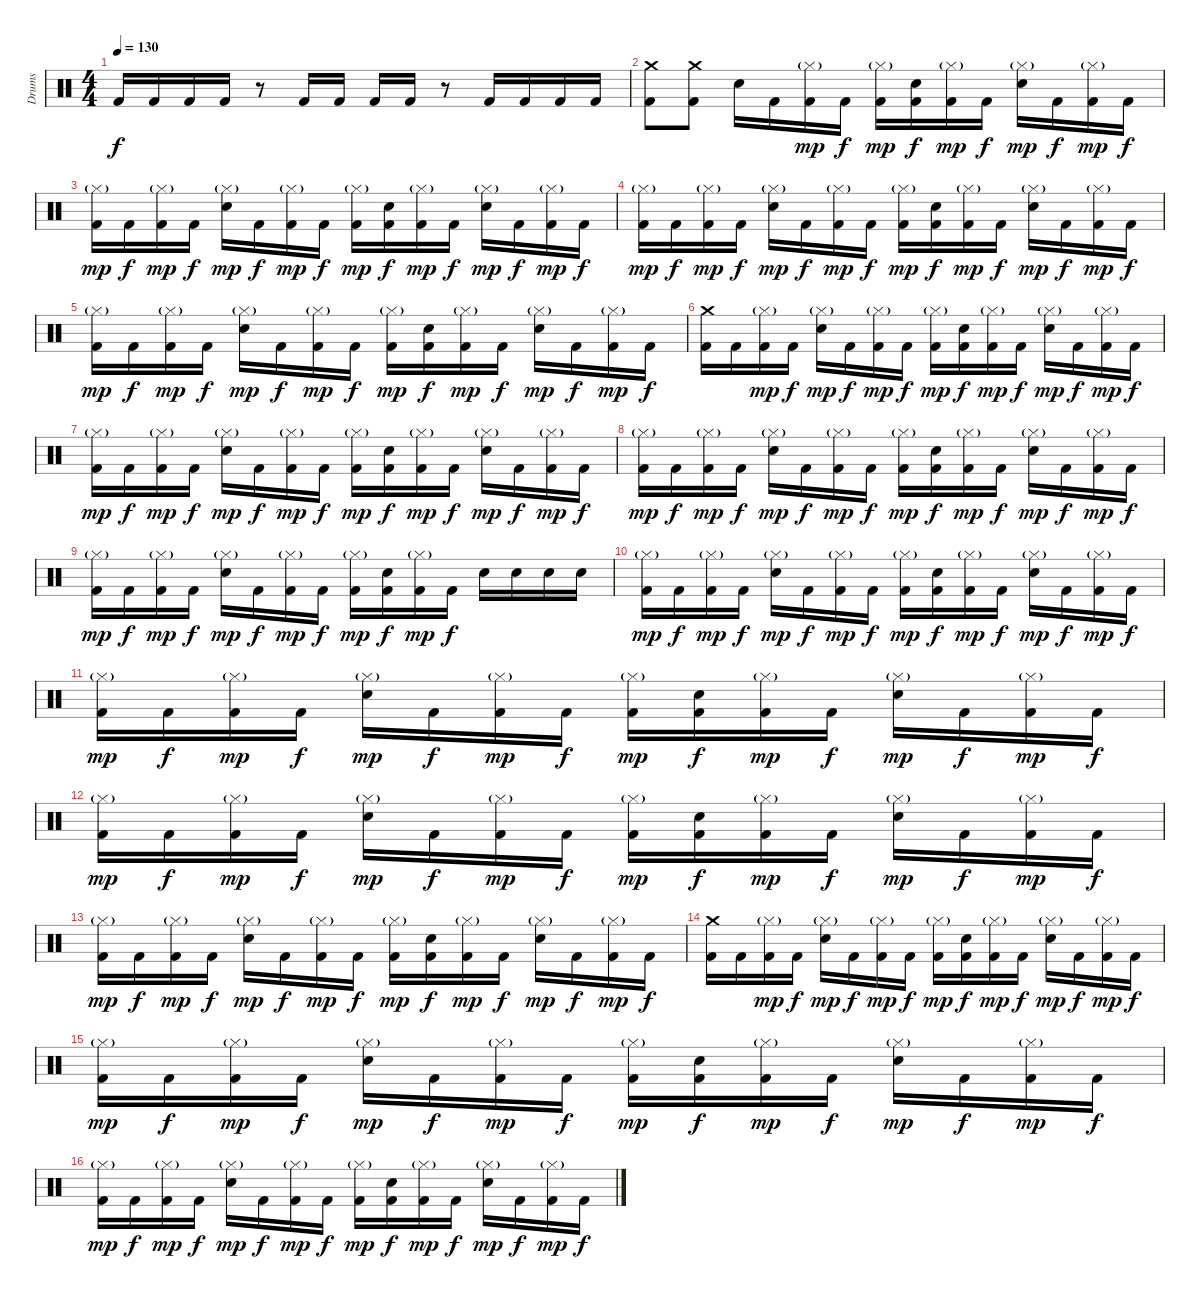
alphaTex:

\track ("Drums" "Drums") {instrument percussion}
\staff {score}
\articulation defaults
\ts (4 4)
\tempo 130
\clef neutral
\ks c "Kick (hit) 2".16{dy f} "Kick (hit) 2".16 "Kick (hit) 2".16 "Kick (hit) 2".16
r.8 "Kick (hit) 2".16 "Kick (hit) 2".16 "Kick (hit) 2".16 "Kick (hit) 2".16 r.8 "Kick (hit) 2".16 "Kick (hit) 2".16 "Kick (hit) 2".16 "Kick (hit) 2".16 |
("Crash medium (hit)" "Kick (hit) 2").8 ("Crash medium (hit)" "Kick (hit) 2").8 "Snare (hit) 2".16 "Kick (hit) 2".16 ("Hi-Hat (closed)"{g} "Kick (hit) 2").16{dy mp} "Kick (hit) 2".16{dy f} ("Hi-Hat (closed)"{g} "Kick (hit) 2").16{dy mp} ("Snare (hit) 2" "Kick (hit) 2").16{dy f} ("Hi-Hat (closed)"{g} "Kick (hit) 2").16{dy mp} "Kick (hit) 2".16{dy f} ("Snare (hit) 2" "Hi-Hat (closed)"{g}).16{dy mp} "Kick (hit) 2".16{dy f} ("Hi-Hat (closed)"{g} "Kick (hit) 2").16{dy mp} "Kick (hit) 2".16{dy f} |
("Hi-Hat (closed)"{g} "Kick (hit) 2").16{dy mp} "Kick (hit) 2".16{dy f} ("Hi-Hat (closed)"{g} "Kick (hit) 2").16{dy mp} "Kick (hit) 2".16{dy f} ("Snare (hit) 2" "Hi-Hat (closed)"{g}).16{dy mp} "Kick (hit) 2".16{dy f} ("Hi-Hat (closed)"{g} "Kick (hit) 2").16{dy mp} "Kick (hit) 2".16{dy f} ("Hi-Hat (closed)"{g} "Kick (hit) 2").16{dy mp} ("Snare (hit) 2" "Kick (hit) 2").16{dy f} ("Hi-Hat (closed)"{g} "Kick (hit) 2").16{dy mp} "Kick (hit) 2".16{dy f} ("Snare (hit) 2" "Hi-Hat (closed)"{g}).16{dy mp} "Kick (hit) 2".16{dy f} ("Hi-Hat (closed)"{g} "Kick (hit) 2").16{dy mp} "Kick (hit) 2".16{dy f} |
("Hi-Hat (closed)"{g} "Kick (hit) 2").16{dy mp} "Kick (hit) 2".16{dy f} ("Hi-Hat (closed)"{g} "Kick (hit) 2").16{dy mp} "Kick (hit) 2".16{dy f} ("Snare (hit) 2" "Hi-Hat (closed)"{g}).16{dy mp} "Kick (hit) 2".16{dy f} ("Hi-Hat (closed)"{g} "Kick (hit) 2").16{dy mp} "Kick (hit) 2".16{dy f} ("Hi-Hat (closed)"{g} "Kick (hit) 2").16{dy mp} ("Snare (hit) 2" "Kick (hit) 2").16{dy f} ("Hi-Hat (closed)"{g} "Kick (hit) 2").16{dy mp} "Kick (hit) 2".16{dy f} ("Snare (hit) 2" "Hi-Hat (closed)"{g}).16{dy mp} "Kick (hit) 2".16{dy f} ("Hi-Hat (closed)"{g} "Kick (hit) 2").16{dy mp} "Kick (hit) 2".16{dy f} |
("Hi-Hat (closed)"{g} "Kick (hit) 2").16{dy mp} "Kick (hit) 2".16{dy f} ("Hi-Hat (closed)"{g} "Kick (hit) 2").16{dy mp} "Kick (hit) 2".16{dy f} ("Snare (hit) 2" "Hi-Hat (closed)"{g}).16{dy mp} "Kick (hit) 2".16{dy f} ("Hi-Hat (closed)"{g} "Kick (hit) 2").16{dy mp} "Kick (hit) 2".16{dy f} ("Hi-Hat (closed)"{g} "Kick (hit) 2").16{dy mp} ("Snare (hit) 2" "Kick (hit) 2").16{dy f} ("Hi-Hat (closed)"{g} "Kick (hit) 2").16{dy mp} "Kick (hit) 2".16{dy f} ("Snare (hit) 2" "Hi-Hat (closed)"{g}).16{dy mp} "Kick (hit) 2".16{dy f} ("Hi-Hat (closed)"{g} "Kick (hit) 2").16{dy mp} "Kick (hit) 2".16{dy f} |
("Crash medium (hit)" "Kick (hit) 2").16 "Kick (hit) 2".16 ("Hi-Hat (closed)"{g} "Kick (hit) 2").16{dy mp} "Kick (hit) 2".16{dy f} ("Snare (hit) 2" "Hi-Hat (closed)"{g}).16{dy mp} "Kick (hit) 2".16{dy f} ("Hi-Hat (closed)"{g} "Kick (hit) 2").16{dy mp} "Kick (hit) 2".16{dy f} ("Hi-Hat (closed)"{g} "Kick (hit) 2").16{dy mp} ("Snare (hit) 2" "Kick (hit) 2").16{dy f} ("Hi-Hat (closed)"{g} "Kick (hit) 2").16{dy mp} "Kick (hit) 2".16{dy f} ("Snare (hit) 2" "Hi-Hat (closed)"{g}).16{dy mp} "Kick (hit) 2".16{dy f} ("Hi-Hat (closed)"{g} "Kick (hit) 2").16{dy mp} "Kick (hit) 2".16{dy f} |
("Hi-Hat (closed)"{g} "Kick (hit) 2").16{dy mp} "Kick (hit) 2".16{dy f} ("Hi-Hat (closed)"{g} "Kick (hit) 2").16{dy mp} "Kick (hit) 2".16{dy f} ("Snare (hit) 2" "Hi-Hat (closed)"{g}).16{dy mp} "Kick (hit) 2".16{dy f} ("Hi-Hat (closed)"{g} "Kick (hit) 2").16{dy mp} "Kick (hit) 2".16{dy f} ("Hi-Hat (closed)"{g} "Kick (hit) 2").16{dy mp} ("Snare (hit) 2" "Kick (hit) 2").16{dy f} ("Hi-Hat (closed)"{g} "Kick (hit) 2").16{dy mp} "Kick (hit) 2".16{dy f} ("Snare (hit) 2" "Hi-Hat (closed)"{g}).16{dy mp} "Kick (hit) 2".16{dy f} ("Hi-Hat (closed)"{g} "Kick (hit) 2").16{dy mp} "Kick (hit) 2".16{dy f} |
("Hi-Hat (closed)"{g} "Kick (hit) 2").16{dy mp} "Kick (hit) 2".16{dy f} ("Hi-Hat (closed)"{g} "Kick (hit) 2").16{dy mp} "Kick (hit) 2".16{dy f} ("Snare (hit) 2" "Hi-Hat (closed)"{g}).16{dy mp} "Kick (hit) 2".16{dy f} ("Hi-Hat (closed)"{g} "Kick (hit) 2").16{dy mp} "Kick (hit) 2".16{dy f} ("Hi-Hat (closed)"{g} "Kick (hit) 2").16{dy mp} ("Snare (hit) 2" "Kick (hit) 2").16{dy f} ("Hi-Hat (closed)"{g} "Kick (hit) 2").16{dy mp} "Kick (hit) 2".16{dy f} ("Snare (hit) 2" "Hi-Hat (closed)"{g}).16{dy mp} "Kick (hit) 2".16{dy f} ("Hi-Hat (closed)"{g} "Kick (hit) 2").16{dy mp} "Kick (hit) 2".16{dy f} |
("Hi-Hat (closed)"{g} "Kick (hit) 2").16{dy mp} "Kick (hit) 2".16{dy f} ("Hi-Hat (closed)"{g} "Kick (hit) 2").16{dy mp} "Kick (hit) 2".16{dy f} ("Snare (hit) 2" "Hi-Hat (closed)"{g}).16{dy mp} "Kick (hit) 2".16{dy f} ("Hi-Hat (closed)"{g} "Kick (hit) 2").16{dy mp} "Kick (hit) 2".16{dy f} ("Hi-Hat (closed)"{g} "Kick (hit) 2").16{dy mp} ("Snare (hit) 2" "Kick (hit) 2").16{dy f} ("Hi-Hat (closed)"{g} "Kick (hit) 2").16{dy mp} "Kick (hit) 2".16{dy f} "Snare (hit) 2".16 "Snare (hit) 2".16 "Snare (hit) 2".16 "Snare (hit) 2".16 |
("Hi-Hat (closed)"{g} "Kick (hit) 2").16{dy mp} "Kick (hit) 2".16{dy f} ("Hi-Hat (closed)"{g} "Kick (hit) 2").16{dy mp} "Kick (hit) 2".16{dy f} ("Snare (hit) 2" "Hi-Hat (closed)"{g}).16{dy mp} "Kick (hit) 2".16{dy f} ("Hi-Hat (closed)"{g} "Kick (hit) 2").16{dy mp} "Kick (hit) 2".16{dy f} ("Hi-Hat (closed)"{g} "Kick (hit) 2").16{dy mp} ("Snare (hit) 2" "Kick (hit) 2").16{dy f} ("Hi-Hat (closed)"{g} "Kick (hit) 2").16{dy mp} "Kick (hit) 2".16{dy f} ("Snare (hit) 2" "Hi-Hat (closed)"{g}).16{dy mp} "Kick (hit) 2".16{dy f} ("Hi-Hat (closed)"{g} "Kick (hit) 2").16{dy mp} "Kick (hit) 2".16{dy f} |
("Hi-Hat (closed)"{g} "Kick (hit) 2").16{dy mp} "Kick (hit) 2".16{dy f} ("Hi-Hat (closed)"{g} "Kick (hit) 2").16{dy mp} "Kick (hit) 2".16{dy f} ("Snare (hit) 2" "Hi-Hat (closed)"{g}).16{dy mp} "Kick (hit) 2".16{dy f} ("Hi-Hat (closed)"{g} "Kick (hit) 2").16{dy mp} "Kick (hit) 2".16{dy f} ("Hi-Hat (closed)"{g} "Kick (hit) 2").16{dy mp} ("Snare (hit) 2" "Kick (hit) 2").16{dy f} ("Hi-Hat (closed)"{g} "Kick (hit) 2").16{dy mp} "Kick (hit) 2".16{dy f} ("Snare (hit) 2" "Hi-Hat (closed)"{g}).16{dy mp} "Kick (hit) 2".16{dy f} ("Hi-Hat (closed)"{g} "Kick (hit) 2").16{dy mp} "Kick (hit) 2".16{dy f} |
("Hi-Hat (closed)"{g} "Kick (hit) 2").16{dy mp} "Kick (hit) 2".16{dy f} ("Hi-Hat (closed)"{g} "Kick (hit) 2").16{dy mp} "Kick (hit) 2".16{dy f} ("Snare (hit) 2" "Hi-Hat (closed)"{g}).16{dy mp} "Kick (hit) 2".16{dy f} ("Hi-Hat (closed)"{g} "Kick (hit) 2").16{dy mp} "Kick (hit) 2".16{dy f} ("Hi-Hat (closed)"{g} "Kick (hit) 2").16{dy mp} ("Snare (hit) 2" "Kick (hit) 2").16{dy f} ("Hi-Hat (closed)"{g} "Kick (hit) 2").16{dy mp} "Kick (hit) 2".16{dy f} ("Snare (hit) 2" "Hi-Hat (closed)"{g}).16{dy mp} "Kick (hit) 2".16{dy f} ("Hi-Hat (closed)"{g} "Kick (hit) 2").16{dy mp} "Kick (hit) 2".16{dy f} |
("Hi-Hat (closed)"{g} "Kick (hit) 2").16{dy mp} "Kick (hit) 2".16{dy f} ("Hi-Hat (closed)"{g} "Kick (hit) 2").16{dy mp} "Kick (hit) 2".16{dy f} ("Snare (hit) 2" "Hi-Hat (closed)"{g}).16{dy mp} "Kick (hit) 2".16{dy f} ("Hi-Hat (closed)"{g} "Kick (hit) 2").16{dy mp} "Kick (hit) 2".16{dy f} ("Hi-Hat (closed)"{g} "Kick (hit) 2").16{dy mp} ("Snare (hit) 2" "Kick (hit) 2").16{dy f} ("Hi-Hat (closed)"{g} "Kick (hit) 2").16{dy mp} "Kick (hit) 2".16{dy f} ("Snare (hit) 2" "Hi-Hat (closed)"{g}).16{dy mp} "Kick (hit) 2".16{dy f} ("Hi-Hat (closed)"{g} "Kick (hit) 2").16{dy mp} "Kick (hit) 2".16{dy f} |
("Crash medium (hit)" "Kick (hit) 2").16 "Kick (hit) 2".16 ("Hi-Hat (closed)"{g} "Kick (hit) 2").16{dy mp} "Kick (hit) 2".16{dy f} ("Snare (hit) 2" "Hi-Hat (closed)"{g}).16{dy mp} "Kick (hit) 2".16{dy f} ("Hi-Hat (closed)"{g} "Kick (hit) 2").16{dy mp} "Kick (hit) 2".16{dy f} ("Hi-Hat (closed)"{g} "Kick (hit) 2").16{dy mp} ("Snare (hit) 2" "Kick (hit) 2").16{dy f} ("Hi-Hat (closed)"{g} "Kick (hit) 2").16{dy mp} "Kick (hit) 2".16{dy f} ("Snare (hit) 2" "Hi-Hat (closed)"{g}).16{dy mp} "Kick (hit) 2".16{dy f} ("Hi-Hat (closed)"{g} "Kick (hit) 2").16{dy mp} "Kick (hit) 2".16{dy f} |
("Hi-Hat (closed)"{g} "Kick (hit) 2").16{dy mp} "Kick (hit) 2".16{dy f} ("Hi-Hat (closed)"{g} "Kick (hit) 2").16{dy mp} "Kick (hit) 2".16{dy f} ("Snare (hit) 2" "Hi-Hat (closed)"{g}).16{dy mp} "Kick (hit) 2".16{dy f} ("Hi-Hat (closed)"{g} "Kick (hit) 2").16{dy mp} "Kick (hit) 2".16{dy f} ("Hi-Hat (closed)"{g} "Kick (hit) 2").16{dy mp} ("Snare (hit) 2" "Kick (hit) 2").16{dy f} ("Hi-Hat (closed)"{g} "Kick (hit) 2").16{dy mp} "Kick (hit) 2".16{dy f} ("Snare (hit) 2" "Hi-Hat (closed)"{g}).16{dy mp} "Kick (hit) 2".16{dy f} ("Hi-Hat (closed)"{g} "Kick (hit) 2").16{dy mp} "Kick (hit) 2".16{dy f} |
("Hi-Hat (closed)"{g} "Kick (hit) 2").16{dy mp} "Kick (hit) 2".16{dy f} ("Hi-Hat (closed)"{g} "Kick (hit) 2").16{dy mp} "Kick (hit) 2".16{dy f} ("Snare (hit) 2" "Hi-Hat (closed)"{g}).16{dy mp} "Kick (hit) 2".16{dy f} ("Hi-Hat (closed)"{g} "Kick (hit) 2").16{dy mp} "Kick (hit) 2".16{dy f} ("Hi-Hat (closed)"{g} "Kick (hit) 2").16{dy mp} ("Snare (hit) 2" "Kick (hit) 2").16{dy f} ("Hi-Hat (closed)"{g} "Kick (hit) 2").16{dy mp} "Kick (hit) 2".16{dy f} ("Snare (hit) 2" "Hi-Hat (closed)"{g}).16{dy mp} "Kick (hit) 2".16{dy f} ("Hi-Hat (closed)"{g} "Kick (hit) 2").16{dy mp} "Kick (hit) 2".16{dy f}
